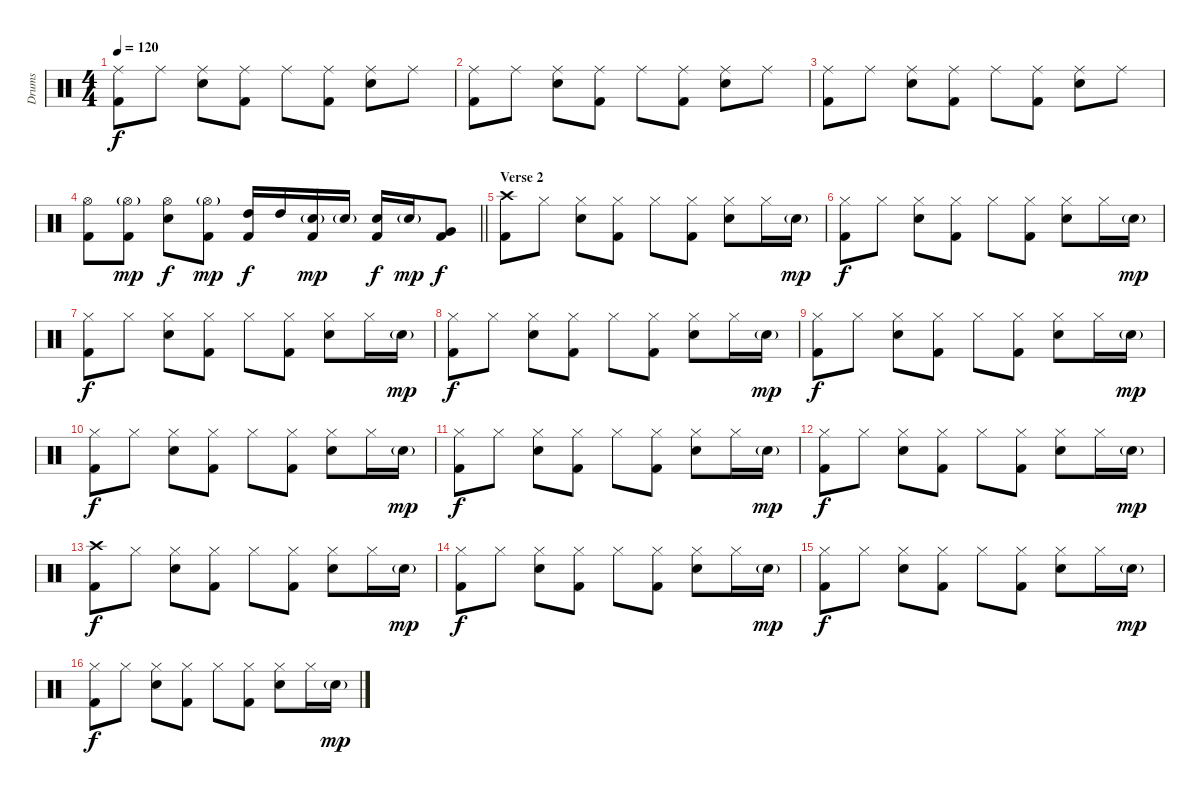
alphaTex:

\track ("Drums" "Drums") {instrument percussion}
\staff {score}
\articulation defaults
\ts (4 4)
\tempo 120
\clef neutral
\ks c
("Kick (hit) 2" "Ride (middle)").8{dy f} "Ride (middle)".8 ("Electric Snare (hit)" "Ride (middle)").8 ("Kick (hit) 2" "Ride (middle)").8 "Ride (middle)".8 ("Kick (hit) 2" "Ride (middle)").8 ("Electric Snare (hit)" "Ride (middle)").8 "Ride (middle)".8 |
("Kick (hit) 2" "Ride (middle)").8 "Ride (middle)".8 ("Electric Snare (hit)" "Ride (middle)").8 ("Kick (hit) 2" "Ride (middle)").8 "Ride (middle)".8 ("Kick (hit) 2" "Ride (middle)").8 ("Electric Snare (hit)" "Ride (middle)").8 "Ride (middle)".8 |
("Kick (hit) 2" "Ride (middle)").8 "Ride (middle)".8 ("Electric Snare (hit)" "Ride (middle)").8 ("Kick (hit) 2" "Ride (middle)").8 "Ride (middle)".8 ("Kick (hit) 2" "Ride (middle)").8 ("Electric Snare (hit)" "Ride (middle)").8 "Ride (middle)".8 |
\barLineRight lightlight
("Kick (hit) 2" "Hi-Hat (open)").8 ("Kick (hit) 2" "Hi-Hat (open)"{g}).8{dy mp} ("Electric Snare (hit)" "Hi-Hat (open)").8{dy f} ("Kick (hit) 2" "Hi-Hat (open)"{g}).8{dy mp} ("Kick (hit) 2" "High Tom (hit)").16{dy f} "High Tom (hit)".16 ("Kick (hit) 2" "Electric Snare (hit)"{g}).16{dy mp} "Electric Snare (hit)"{g}.16 ("Kick (hit) 2" "Electric Snare (hit)").16{dy f} "Electric Snare (hit)"{g}.16{dy mp} ("Kick (hit) 2" "Very Low Tom (hit)").8{dy f} |
\section ("" "Verse 2")
("Kick (hit) 2" "Crash high (hit)").8 "Hi-Hat (closed)".8 ("Electric Snare (hit)" "Hi-Hat (closed)").8 ("Kick (hit) 2" "Hi-Hat (closed)").8 "Hi-Hat (closed)".8 ("Kick (hit) 2" "Hi-Hat (closed)").8 ("Electric Snare (hit)" "Hi-Hat (closed)").8 "Hi-Hat (closed)".16 "Electric Snare (hit)"{g}.16{dy mp} |
("Kick (hit) 2" "Hi-Hat (closed)").8{dy f} "Hi-Hat (closed)".8 ("Electric Snare (hit)" "Hi-Hat (closed)").8 ("Kick (hit) 2" "Hi-Hat (closed)").8 "Hi-Hat (closed)".8 ("Kick (hit) 2" "Hi-Hat (closed)").8 ("Electric Snare (hit)" "Hi-Hat (closed)").8 "Hi-Hat (closed)".16 "Electric Snare (hit)"{g}.16{dy mp} |
("Kick (hit) 2" "Hi-Hat (closed)").8{dy f} "Hi-Hat (closed)".8 ("Electric Snare (hit)" "Hi-Hat (closed)").8 ("Kick (hit) 2" "Hi-Hat (closed)").8 "Hi-Hat (closed)".8 ("Kick (hit) 2" "Hi-Hat (closed)").8 ("Electric Snare (hit)" "Hi-Hat (closed)").8 "Hi-Hat (closed)".16 "Electric Snare (hit)"{g}.16{dy mp} |
("Kick (hit) 2" "Hi-Hat (closed)").8{dy f} "Hi-Hat (closed)".8 ("Electric Snare (hit)" "Hi-Hat (closed)").8 ("Kick (hit) 2" "Hi-Hat (closed)").8 "Hi-Hat (closed)".8 ("Kick (hit) 2" "Hi-Hat (closed)").8 ("Electric Snare (hit)" "Hi-Hat (closed)").8 "Hi-Hat (closed)".16 "Electric Snare (hit)"{g}.16{dy mp} |
("Kick (hit) 2" "Hi-Hat (closed)").8{dy f} "Hi-Hat (closed)".8 ("Electric Snare (hit)" "Hi-Hat (closed)").8 ("Kick (hit) 2" "Hi-Hat (closed)").8 "Hi-Hat (closed)".8 ("Kick (hit) 2" "Hi-Hat (closed)").8 ("Electric Snare (hit)" "Hi-Hat (closed)").8 "Hi-Hat (closed)".16 "Electric Snare (hit)"{g}.16{dy mp} |
("Kick (hit) 2" "Hi-Hat (closed)").8{dy f} "Hi-Hat (closed)".8 ("Electric Snare (hit)" "Hi-Hat (closed)").8 ("Kick (hit) 2" "Hi-Hat (closed)").8 "Hi-Hat (closed)".8 ("Kick (hit) 2" "Hi-Hat (closed)").8 ("Electric Snare (hit)" "Hi-Hat (closed)").8 "Hi-Hat (closed)".16 "Electric Snare (hit)"{g}.16{dy mp} |
("Kick (hit) 2" "Hi-Hat (closed)").8{dy f} "Hi-Hat (closed)".8 ("Electric Snare (hit)" "Hi-Hat (closed)").8 ("Kick (hit) 2" "Hi-Hat (closed)").8 "Hi-Hat (closed)".8 ("Kick (hit) 2" "Hi-Hat (closed)").8 ("Electric Snare (hit)" "Hi-Hat (closed)").8 "Hi-Hat (closed)".16 "Electric Snare (hit)"{g}.16{dy mp} |
("Kick (hit) 2" "Hi-Hat (closed)").8{dy f} "Hi-Hat (closed)".8 ("Electric Snare (hit)" "Hi-Hat (closed)").8 ("Kick (hit) 2" "Hi-Hat (closed)").8 "Hi-Hat (closed)".8 ("Kick (hit) 2" "Hi-Hat (closed)").8 ("Electric Snare (hit)" "Hi-Hat (closed)").8 "Hi-Hat (closed)".16 "Electric Snare (hit)"{g}.16{dy mp} |
("Kick (hit) 2" "Crash high (hit)").8{dy f} "Hi-Hat (closed)".8 ("Electric Snare (hit)" "Hi-Hat (closed)").8 ("Kick (hit) 2" "Hi-Hat (closed)").8 "Hi-Hat (closed)".8 ("Kick (hit) 2" "Hi-Hat (closed)").8 ("Electric Snare (hit)" "Hi-Hat (closed)").8 "Hi-Hat (closed)".16 "Electric Snare (hit)"{g}.16{dy mp} |
("Kick (hit) 2" "Hi-Hat (closed)").8{dy f} "Hi-Hat (closed)".8 ("Electric Snare (hit)" "Hi-Hat (closed)").8 ("Kick (hit) 2" "Hi-Hat (closed)").8 "Hi-Hat (closed)".8 ("Kick (hit) 2" "Hi-Hat (closed)").8 ("Electric Snare (hit)" "Hi-Hat (closed)").8 "Hi-Hat (closed)".16 "Electric Snare (hit)"{g}.16{dy mp} |
("Kick (hit) 2" "Hi-Hat (closed)").8{dy f} "Hi-Hat (closed)".8 ("Electric Snare (hit)" "Hi-Hat (closed)").8 ("Kick (hit) 2" "Hi-Hat (closed)").8 "Hi-Hat (closed)".8 ("Kick (hit) 2" "Hi-Hat (closed)").8 ("Electric Snare (hit)" "Hi-Hat (closed)").8 "Hi-Hat (closed)".16 "Electric Snare (hit)"{g}.16{dy mp} |
("Kick (hit) 2" "Hi-Hat (closed)").8{dy f} "Hi-Hat (closed)".8 ("Electric Snare (hit)" "Hi-Hat (closed)").8 ("Kick (hit) 2" "Hi-Hat (closed)").8 "Hi-Hat (closed)".8 ("Kick (hit) 2" "Hi-Hat (closed)").8 ("Electric Snare (hit)" "Hi-Hat (closed)").8 "Hi-Hat (closed)".16 "Electric Snare (hit)"{g}.16{dy mp}
